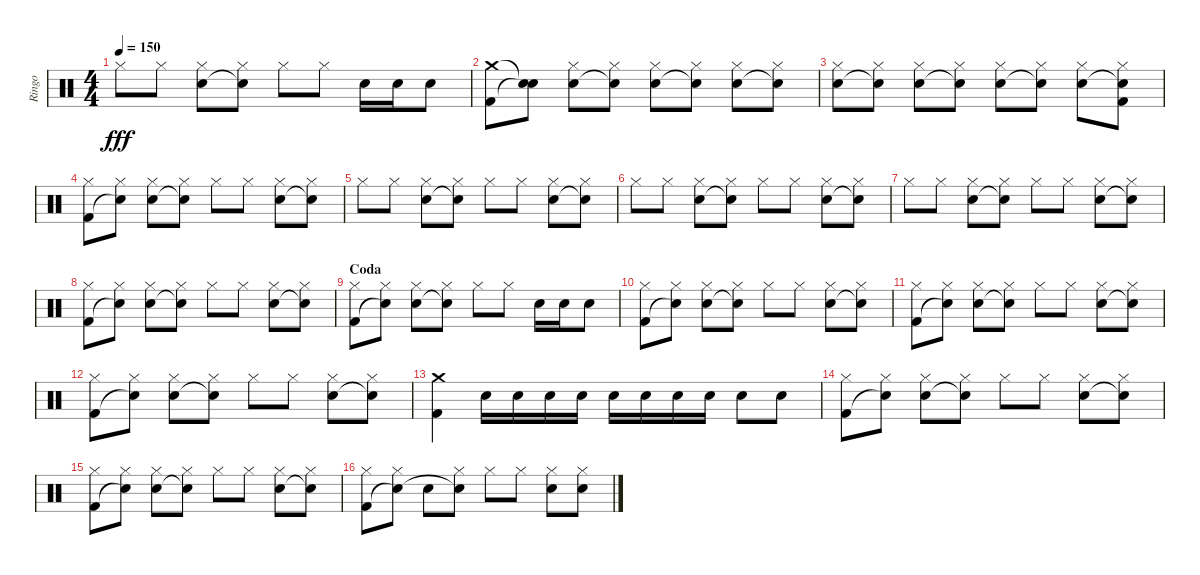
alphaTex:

\track ("Ringo" "Ringo") {instrument percussion}
\staff {score}
\articulation defaults
\ts (4 4)
\tempo 150
\clef neutral
\ks c "Hi-Hat (closed)".8{dy fff} "Hi-Hat (closed)".8
("Hi-Hat (closed)" "Snare (hit) 2").8 ("Hi-Hat (closed)" "Snare (hit)"{t}).8 "Hi-Hat (closed)".8 "Hi-Hat (closed)".8 "Snare (hit) 2".16 "Snare (hit) 2".16 "Snare (hit) 2".8 |
("Crash medium (hit)" "Kick (hit) 2").8 ("Snare (hit)"{t} "Snare (hit)"{t}).8 ("Hi-Hat (closed)" "Snare (hit) 2").8 ("Hi-Hat (closed)" "Snare (hit)"{t}).8 ("Hi-Hat (closed)" "Snare (hit) 2").8 ("Hi-Hat (closed)" "Snare (hit)"{t}).8 ("Hi-Hat (closed)" "Snare (hit) 2").8 ("Hi-Hat (closed)" "Snare (hit)"{t}).8 |
("Hi-Hat (closed)" "Snare (hit) 2").8 ("Hi-Hat (closed)" "Snare (hit)"{t}).8 ("Hi-Hat (closed)" "Snare (hit) 2").8 ("Hi-Hat (closed)" "Snare (hit)"{t}).8 ("Hi-Hat (closed)" "Snare (hit) 2").8 ("Hi-Hat (closed)" "Snare (hit)"{t}).8 ("Hi-Hat (closed)" "Snare (hit) 2").8 ("Hi-Hat (closed)" "Snare (hit)"{t} "Kick (hit) 2").8 |
("Hi-Hat (closed)" "Kick (hit) 2").8 ("Hi-Hat (closed)" "Snare (hit)"{t}).8 ("Hi-Hat (closed)" "Snare (hit) 2").8 ("Hi-Hat (closed)" "Snare (hit)"{t}).8 "Hi-Hat (closed)".8 "Hi-Hat (closed)".8 ("Hi-Hat (closed)" "Snare (hit) 2").8 ("Hi-Hat (closed)" "Snare (hit)"{t}).8 |
"Hi-Hat (closed)".8 "Hi-Hat (closed)".8 ("Hi-Hat (closed)" "Snare (hit) 2").8 ("Hi-Hat (closed)" "Snare (hit)"{t}).8 "Hi-Hat (closed)".8 "Hi-Hat (closed)".8 ("Hi-Hat (closed)" "Snare (hit) 2").8 ("Hi-Hat (closed)" "Snare (hit)"{t}).8 |
"Hi-Hat (closed)".8 "Hi-Hat (closed)".8 ("Hi-Hat (closed)" "Snare (hit) 2").8 ("Hi-Hat (closed)" "Snare (hit)"{t}).8 "Hi-Hat (closed)".8 "Hi-Hat (closed)".8 ("Hi-Hat (closed)" "Snare (hit) 2").8 ("Hi-Hat (closed)" "Snare (hit)"{t}).8 |
"Hi-Hat (closed)".8 "Hi-Hat (closed)".8 ("Hi-Hat (closed)" "Snare (hit) 2").8 ("Hi-Hat (closed)" "Snare (hit)"{t}).8 "Hi-Hat (closed)".8 "Hi-Hat (closed)".8 ("Hi-Hat (closed)" "Snare (hit) 2").8 ("Hi-Hat (closed)" "Snare (hit)"{t}).8 |
("Hi-Hat (closed)" "Kick (hit) 2").8 ("Hi-Hat (closed)" "Snare (hit)"{t}).8 ("Hi-Hat (closed)" "Snare (hit) 2").8 ("Hi-Hat (closed)" "Snare (hit)"{t}).8 "Hi-Hat (closed)".8 "Hi-Hat (closed)".8 ("Hi-Hat (closed)" "Snare (hit) 2").8 ("Hi-Hat (closed)" "Snare (hit)"{t}).8 |
\section ("" "Coda")
("Hi-Hat (closed)" "Kick (hit) 2").8 ("Hi-Hat (closed)" "Snare (hit)"{t}).8 ("Hi-Hat (closed)" "Snare (hit) 2").8 ("Hi-Hat (closed)" "Snare (hit)"{t}).8 "Hi-Hat (closed)".8 "Hi-Hat (closed)".8 "Snare (hit) 2".16 "Snare (hit) 2".16 "Snare (hit) 2".8 |
("Hi-Hat (closed)" "Kick (hit) 2").8 ("Hi-Hat (closed)" "Snare (hit)"{t}).8 ("Hi-Hat (closed)" "Snare (hit) 2").8 ("Hi-Hat (closed)" "Snare (hit)"{t}).8 "Hi-Hat (closed)".8 "Hi-Hat (closed)".8 ("Hi-Hat (closed)" "Snare (hit) 2").8 ("Hi-Hat (closed)" "Snare (hit)"{t}).8 |
("Hi-Hat (closed)" "Kick (hit) 2").8 ("Hi-Hat (closed)" "Snare (hit)"{t}).8 ("Hi-Hat (closed)" "Snare (hit) 2").8 ("Hi-Hat (closed)" "Snare (hit)"{t}).8 "Hi-Hat (closed)".8 "Hi-Hat (closed)".8 ("Hi-Hat (closed)" "Snare (hit) 2").8 ("Hi-Hat (closed)" "Snare (hit)"{t}).8 |
("Hi-Hat (closed)" "Kick (hit) 2").8 ("Hi-Hat (closed)" "Snare (hit)"{t}).8 ("Hi-Hat (closed)" "Snare (hit) 2").8 ("Hi-Hat (closed)" "Snare (hit)"{t}).8 "Hi-Hat (closed)".8 "Hi-Hat (closed)".8 ("Hi-Hat (closed)" "Snare (hit) 2").8 ("Hi-Hat (closed)" "Snare (hit)"{t}).8 |
("Crash medium (hit)" "Kick (hit) 2").4 "Snare (hit) 2".16 "Snare (hit) 2".16 "Snare (hit) 2".16 "Snare (hit) 2".16 "Snare (hit) 2".16 "Snare (hit) 2".16 "Snare (hit) 2".16 "Snare (hit) 2".16 "Snare (hit) 2".8 "Snare (hit) 2".8 |
("Hi-Hat (closed)" "Kick (hit) 2").8 ("Hi-Hat (closed)" "Snare (hit)"{t}).8 ("Hi-Hat (closed)" "Snare (hit) 2").8 ("Hi-Hat (closed)" "Snare (hit)"{t}).8 "Hi-Hat (closed)".8 "Hi-Hat (closed)".8 ("Hi-Hat (closed)" "Snare (hit) 2").8 ("Hi-Hat (closed)" "Snare (hit)"{t}).8 |
("Hi-Hat (closed)" "Kick (hit) 2").8 ("Hi-Hat (closed)" "Snare (hit)"{t}).8 ("Hi-Hat (closed)" "Snare (hit) 2").8 ("Hi-Hat (closed)" "Snare (hit)"{t}).8 "Hi-Hat (closed)".8 "Hi-Hat (closed)".8 ("Hi-Hat (closed)" "Snare (hit) 2").8 ("Hi-Hat (closed)" "Snare (hit)"{t}).8 |
("Hi-Hat (closed)" "Kick (hit) 2").8 ("Hi-Hat (closed)" "Snare (hit)"{t}).8 "Snare (hit) 2".8 ("Hi-Hat (closed)" "Snare (hit)"{t}).8 "Hi-Hat (closed)".8 "Hi-Hat (closed)".8 ("Hi-Hat (closed)" "Snare (hit) 2").8 ("Hi-Hat (closed)" "Snare (hit) 2").8
